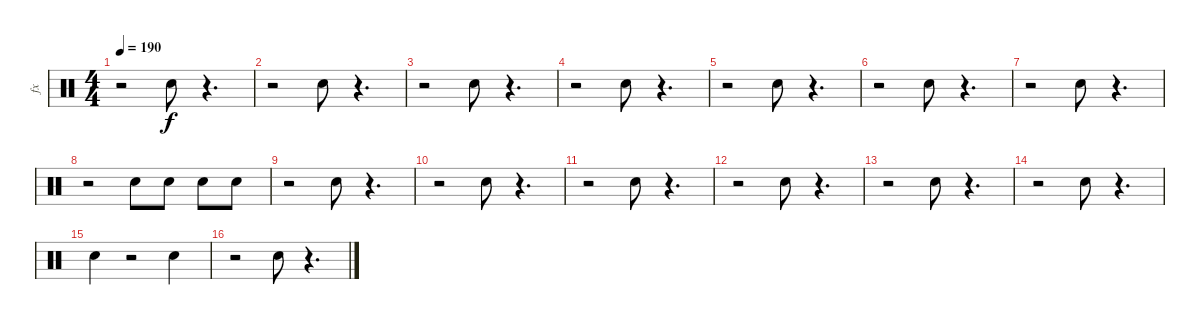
\track ("fx" "fx") {instrument percussion}
\staff {score}
\articulation defaults
\ts (4 4)
\tempo 190
\clef neutral
\ks c
r.2{dy f} "Snare (hit) 2".8 r.4{d} |
r.2 "Snare (hit) 2".8 r.4{d} |
r.2 "Snare (hit) 2".8 r.4{d} |
r.2 "Snare (hit) 2".8 r.4{d} |
r.2 "Snare (hit) 2".8 r.4{d} |
r.2 "Snare (hit) 2".8 r.4{d} |
r.2 "Snare (hit) 2".8 r.4{d} |
r.2 "Snare (hit) 2".8 "Snare (hit) 2".8 "Snare (hit) 2".8 "Snare (hit) 2".8 |
r.2 "Snare (hit) 2".8 r.4{d} |
r.2 "Snare (hit) 2".8 r.4{d} |
r.2 "Snare (hit) 2".8 r.4{d} |
r.2 "Snare (hit) 2".8 r.4{d} |
r.2 "Snare (hit) 2".8 r.4{d} |
r.2 "Snare (hit) 2".8 r.4{d} |
"Snare (hit) 2".4 r.2 "Snare (hit) 2".4 |
r.2 "Snare (hit) 2".8 r.4{d}
